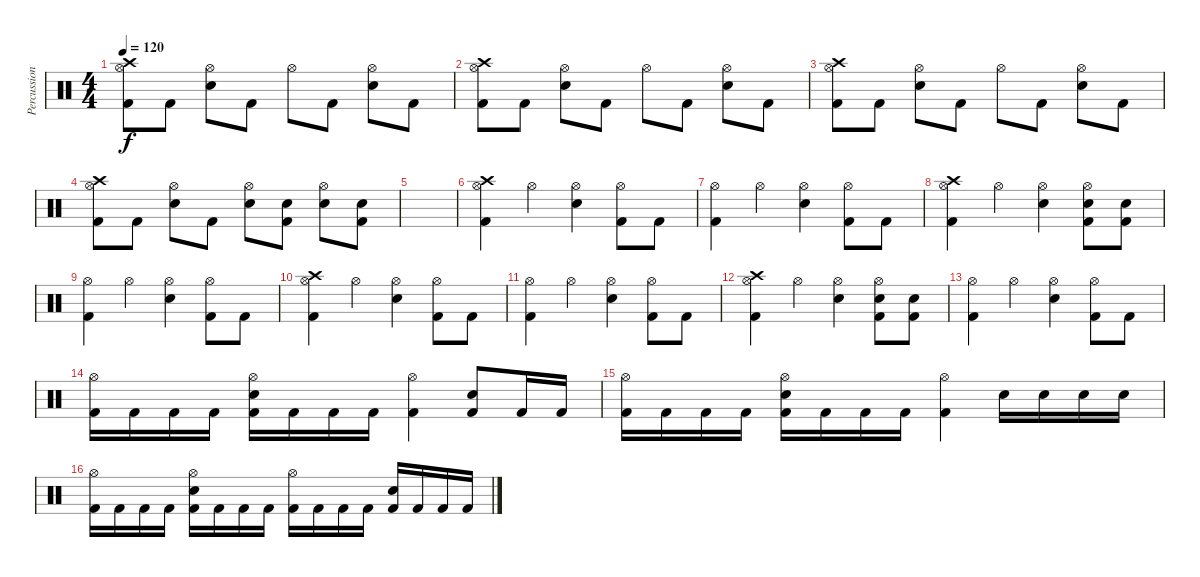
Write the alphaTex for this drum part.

\track ("Percussion" "Percussion") {instrument percussion}
\staff {score}
\articulation defaults
\ts (4 4)
\tempo 120
\clef neutral
\ks c
("Crash high (hit)" "Hi-Hat (open)" "Kick (hit) 2").8{dy f volume 16} "Kick (hit) 2".8 ("Hi-Hat (open)" "Snare (hit) 2").8 "Kick (hit) 2".8 "Hi-Hat (open)".8 "Kick (hit) 2".8 ("Hi-Hat (open)" "Snare (hit) 2").8 "Kick (hit) 2".8 |
("Crash high (hit)" "Hi-Hat (open)" "Kick (hit) 2").8{volume 16} "Kick (hit) 2".8 ("Hi-Hat (open)" "Snare (hit) 2").8 "Kick (hit) 2".8 "Hi-Hat (open)".8 "Kick (hit) 2".8 ("Hi-Hat (open)" "Snare (hit) 2").8 "Kick (hit) 2".8 |
("Crash high (hit)" "Hi-Hat (open)" "Kick (hit) 2").8{volume 16} "Kick (hit) 2".8 ("Hi-Hat (open)" "Snare (hit) 2").8 "Kick (hit) 2".8 "Hi-Hat (open)".8 "Kick (hit) 2".8 ("Hi-Hat (open)" "Snare (hit) 2").8 "Kick (hit) 2".8 |
("Crash high (hit)" "Hi-Hat (open)" "Kick (hit) 2").8{volume 16} "Kick (hit) 2".8 ("Hi-Hat (open)" "Snare (hit) 2").8 "Kick (hit) 2".8 ("Hi-Hat (open)" "Snare (hit) 2").8 ("Snare (hit) 2" "Kick (hit) 2").8 ("Hi-Hat (open)" "Snare (hit) 2").8 ("Snare (hit) 2" "Kick (hit) 2").8 |
|
("Crash high (hit)" "Hi-Hat (open)" "Kick (hit) 2").4 "Hi-Hat (open)".4 ("Hi-Hat (open)" "Snare (hit) 2").4 ("Hi-Hat (open)" "Kick (hit) 2").8 "Kick (hit) 2".8 |
("Hi-Hat (open)" "Kick (hit) 2").4 "Hi-Hat (open)".4 ("Hi-Hat (open)" "Snare (hit) 2").4 ("Hi-Hat (open)" "Kick (hit) 2").8 "Kick (hit) 2".8 |
("Crash high (hit)" "Hi-Hat (open)" "Kick (hit) 2").4 "Hi-Hat (open)".4 ("Hi-Hat (open)" "Snare (hit) 2").4 ("Hi-Hat (open)" "Snare (hit) 2" "Kick (hit) 2").8 ("Snare (hit) 2" "Kick (hit) 2").8 |
("Hi-Hat (open)" "Kick (hit) 2").4 "Hi-Hat (open)".4 ("Hi-Hat (open)" "Snare (hit) 2").4 ("Hi-Hat (open)" "Kick (hit) 2").8 "Kick (hit) 2".8 |
("Crash high (hit)" "Hi-Hat (open)" "Kick (hit) 2").4 "Hi-Hat (open)".4 ("Hi-Hat (open)" "Snare (hit) 2").4 ("Hi-Hat (open)" "Kick (hit) 2").8 "Kick (hit) 2".8 |
("Hi-Hat (open)" "Kick (hit) 2").4 "Hi-Hat (open)".4 ("Hi-Hat (open)" "Snare (hit) 2").4 ("Hi-Hat (open)" "Kick (hit) 2").8 "Kick (hit) 2".8 |
("Crash high (hit)" "Hi-Hat (open)" "Kick (hit) 2").4 "Hi-Hat (open)".4 ("Hi-Hat (open)" "Snare (hit) 2").4 ("Hi-Hat (open)" "Snare (hit) 2" "Kick (hit) 2").8 ("Snare (hit) 2" "Kick (hit) 2").8 |
("Hi-Hat (open)" "Kick (hit) 2").4 "Hi-Hat (open)".4 ("Hi-Hat (open)" "Snare (hit) 2").4 ("Hi-Hat (open)" "Kick (hit) 2").8 "Kick (hit) 2".8 |
("Hi-Hat (open)" "Kick (hit) 2").16 "Kick (hit) 2".16 "Kick (hit) 2".16 "Kick (hit) 2".16 ("Hi-Hat (open)" "Snare (hit) 2" "Kick (hit) 2").16 "Kick (hit) 2".16 "Kick (hit) 2".16 "Kick (hit) 2".16 ("Hi-Hat (open)" "Kick (hit) 2").4 ("Snare (hit) 2" "Kick (hit) 2").8 "Kick (hit) 2".16 "Kick (hit) 2".16 |
("Hi-Hat (open)" "Kick (hit) 2").16 "Kick (hit) 2".16 "Kick (hit) 2".16 "Kick (hit) 2".16 ("Hi-Hat (open)" "Snare (hit) 2" "Kick (hit) 2").16 "Kick (hit) 2".16 "Kick (hit) 2".16 "Kick (hit) 2".16 ("Hi-Hat (open)" "Kick (hit) 2").4 "Snare (hit) 2".16 "Snare (hit) 2".16 "Snare (hit) 2".16 "Snare (hit) 2".16 |
("Hi-Hat (open)" "Kick (hit) 2").16 "Kick (hit) 2".16 "Kick (hit) 2".16 "Kick (hit) 2".16 ("Hi-Hat (open)" "Snare (hit) 2" "Kick (hit) 2").16 "Kick (hit) 2".16 "Kick (hit) 2".16 "Kick (hit) 2".16 ("Hi-Hat (open)" "Kick (hit) 2").16 "Kick (hit) 2".16 "Kick (hit) 2".16 "Kick (hit) 2".16 ("Snare (hit) 2" "Kick (hit) 2").16 "Kick (hit) 2".16 "Kick (hit) 2".16 "Kick (hit) 2".16
